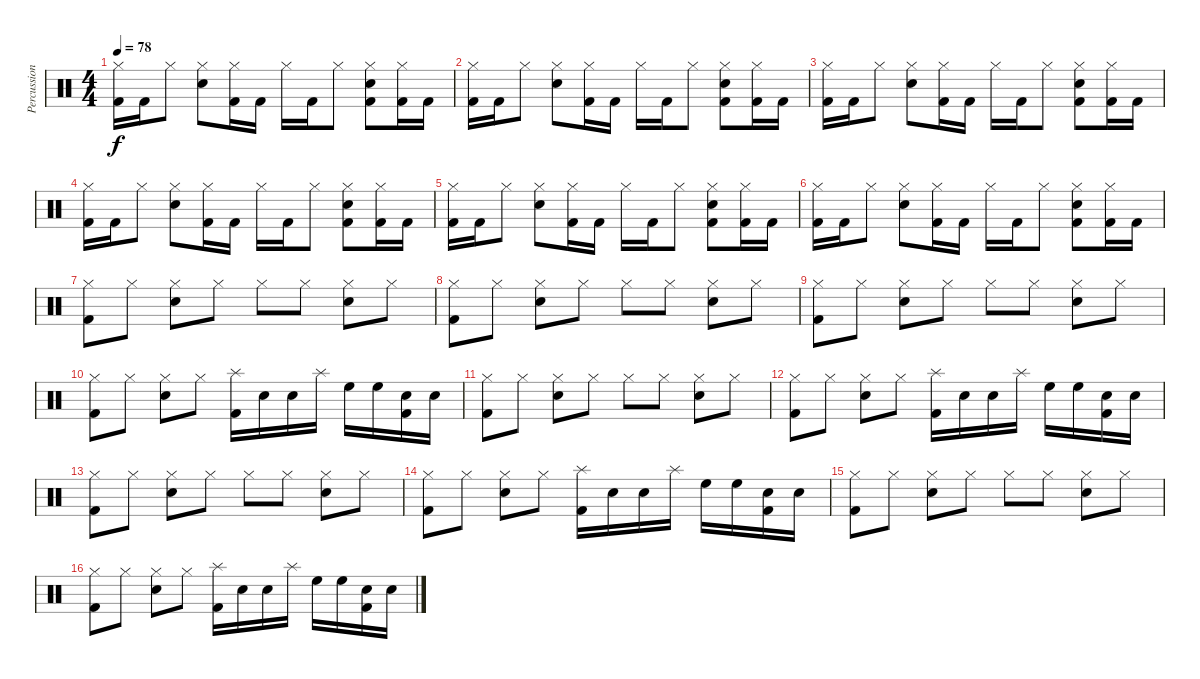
\track ("Percussion" "Percussion") {instrument percussion}
\staff {score}
\articulation defaults
\ts (4 4)
\tempo 78
\clef neutral
\ks c
("Hi-Hat (closed)" "Kick (hit) 2").16{dy f} "Kick (hit) 2".16 "Hi-Hat (closed)".8 ("Hi-Hat (closed)" "Snare (hit) 2").8 ("Hi-Hat (closed)" "Kick (hit) 2").16 "Kick (hit) 2".16 "Hi-Hat (closed)".16 "Kick (hit) 2".16 "Hi-Hat (closed)".8 ("Hi-Hat (closed)" "Snare (hit) 2" "Kick (hit) 2").8 ("Hi-Hat (closed)" "Kick (hit) 2").16 "Kick (hit) 2".16 |
("Hi-Hat (closed)" "Kick (hit) 2").16 "Kick (hit) 2".16 "Hi-Hat (closed)".8 ("Hi-Hat (closed)" "Snare (hit) 2").8 ("Hi-Hat (closed)" "Kick (hit) 2").16 "Kick (hit) 2".16 "Hi-Hat (closed)".16 "Kick (hit) 2".16 "Hi-Hat (closed)".8 ("Hi-Hat (closed)" "Snare (hit) 2" "Kick (hit) 2").8 ("Hi-Hat (closed)" "Kick (hit) 2").16 "Kick (hit) 2".16 |
("Hi-Hat (closed)" "Kick (hit) 2").16 "Kick (hit) 2".16 "Hi-Hat (closed)".8 ("Hi-Hat (closed)" "Snare (hit) 2").8 ("Hi-Hat (closed)" "Kick (hit) 2").16 "Kick (hit) 2".16 "Hi-Hat (closed)".16 "Kick (hit) 2".16 "Hi-Hat (closed)".8 ("Hi-Hat (closed)" "Snare (hit) 2" "Kick (hit) 2").8 ("Hi-Hat (closed)" "Kick (hit) 2").16 "Kick (hit) 2".16 |
("Hi-Hat (closed)" "Kick (hit) 2").16 "Kick (hit) 2".16 "Hi-Hat (closed)".8 ("Hi-Hat (closed)" "Snare (hit) 2").8 ("Hi-Hat (closed)" "Kick (hit) 2").16 "Kick (hit) 2".16 "Hi-Hat (closed)".16 "Kick (hit) 2".16 "Hi-Hat (closed)".8 ("Hi-Hat (closed)" "Snare (hit) 2" "Kick (hit) 2").8 ("Hi-Hat (closed)" "Kick (hit) 2").16 "Kick (hit) 2".16 |
("Hi-Hat (closed)" "Kick (hit) 2").16 "Kick (hit) 2".16 "Hi-Hat (closed)".8 ("Hi-Hat (closed)" "Snare (hit) 2").8 ("Hi-Hat (closed)" "Kick (hit) 2").16 "Kick (hit) 2".16 "Hi-Hat (closed)".16 "Kick (hit) 2".16 "Hi-Hat (closed)".8 ("Hi-Hat (closed)" "Snare (hit) 2" "Kick (hit) 2").8 ("Hi-Hat (closed)" "Kick (hit) 2").16 "Kick (hit) 2".16 |
("Hi-Hat (closed)" "Kick (hit) 2").16 "Kick (hit) 2".16 "Hi-Hat (closed)".8 ("Hi-Hat (closed)" "Snare (hit) 2").8 ("Hi-Hat (closed)" "Kick (hit) 2").16 "Kick (hit) 2".16 "Hi-Hat (closed)".16 "Kick (hit) 2".16 "Hi-Hat (closed)".8 ("Hi-Hat (closed)" "Snare (hit) 2" "Kick (hit) 2").8 ("Hi-Hat (closed)" "Kick (hit) 2").16 "Kick (hit) 2".16 |
("Hi-Hat (closed)" "Kick (hit) 2").8 "Hi-Hat (closed)".8 ("Hi-Hat (closed)" "Snare (hit) 2").8 "Hi-Hat (closed)".8 "Hi-Hat (closed)".8 "Hi-Hat (closed)".8 ("Hi-Hat (closed)" "Snare (hit) 2").8 "Hi-Hat (closed)".8 |
("Hi-Hat (closed)" "Kick (hit) 2").8 "Hi-Hat (closed)".8 ("Hi-Hat (closed)" "Snare (hit) 2").8 "Hi-Hat (closed)".8 "Hi-Hat (closed)".8 "Hi-Hat (closed)".8 ("Hi-Hat (closed)" "Snare (hit) 2").8 "Hi-Hat (closed)".8 |
("Hi-Hat (closed)" "Kick (hit) 2").8 "Hi-Hat (closed)".8 ("Hi-Hat (closed)" "Snare (hit) 2").8 "Hi-Hat (closed)".8 "Hi-Hat (closed)".8 "Hi-Hat (closed)".8 ("Hi-Hat (closed)" "Snare (hit) 2").8 "Hi-Hat (closed)".8 |
("Hi-Hat (closed)" "Kick (hit) 2").8 "Hi-Hat (closed)".8 ("Hi-Hat (closed)" "Snare (hit) 2").8 "Hi-Hat (closed)".8 ("Splash (hit)" "Kick (hit) 2").16 "Snare (hit) 2".16 "Snare (hit) 2".16 "Splash (hit)".16 "High Floor Tom (hit)".16 "High Floor Tom (hit)".16 ("Electric Snare (hit)" "Kick (hit) 2").16 "Electric Snare (hit)".16 |
("Hi-Hat (closed)" "Kick (hit) 2").8 "Hi-Hat (closed)".8 ("Hi-Hat (closed)" "Snare (hit) 2").8 "Hi-Hat (closed)".8 "Hi-Hat (closed)".8 "Hi-Hat (closed)".8 ("Hi-Hat (closed)" "Snare (hit) 2").8 "Hi-Hat (closed)".8 |
("Hi-Hat (closed)" "Kick (hit) 2").8 "Hi-Hat (closed)".8 ("Hi-Hat (closed)" "Snare (hit) 2").8 "Hi-Hat (closed)".8 ("Splash (hit)" "Kick (hit) 2").16 "Snare (hit) 2".16 "Snare (hit) 2".16 "Splash (hit)".16 "High Floor Tom (hit)".16 "High Floor Tom (hit)".16 ("Electric Snare (hit)" "Kick (hit) 2").16 "Electric Snare (hit)".16 |
("Hi-Hat (closed)" "Kick (hit) 2").8 "Hi-Hat (closed)".8 ("Hi-Hat (closed)" "Snare (hit) 2").8 "Hi-Hat (closed)".8 "Hi-Hat (closed)".8 "Hi-Hat (closed)".8 ("Hi-Hat (closed)" "Snare (hit) 2").8 "Hi-Hat (closed)".8 |
("Hi-Hat (closed)" "Kick (hit) 2").8 "Hi-Hat (closed)".8 ("Hi-Hat (closed)" "Snare (hit) 2").8 "Hi-Hat (closed)".8 ("Splash (hit)" "Kick (hit) 2").16 "Snare (hit) 2".16 "Snare (hit) 2".16 "Splash (hit)".16 "High Floor Tom (hit)".16 "High Floor Tom (hit)".16 ("Electric Snare (hit)" "Kick (hit) 2").16 "Electric Snare (hit)".16 |
("Hi-Hat (closed)" "Kick (hit) 2").8 "Hi-Hat (closed)".8 ("Hi-Hat (closed)" "Snare (hit) 2").8 "Hi-Hat (closed)".8 "Hi-Hat (closed)".8 "Hi-Hat (closed)".8 ("Hi-Hat (closed)" "Snare (hit) 2").8 "Hi-Hat (closed)".8 |
("Hi-Hat (closed)" "Kick (hit) 2").8 "Hi-Hat (closed)".8 ("Hi-Hat (closed)" "Snare (hit) 2").8 "Hi-Hat (closed)".8 ("Splash (hit)" "Kick (hit) 2").16 "Snare (hit) 2".16 "Snare (hit) 2".16 "Splash (hit)".16 "High Floor Tom (hit)".16 "High Floor Tom (hit)".16 ("Electric Snare (hit)" "Kick (hit) 2").16 "Electric Snare (hit)".16
